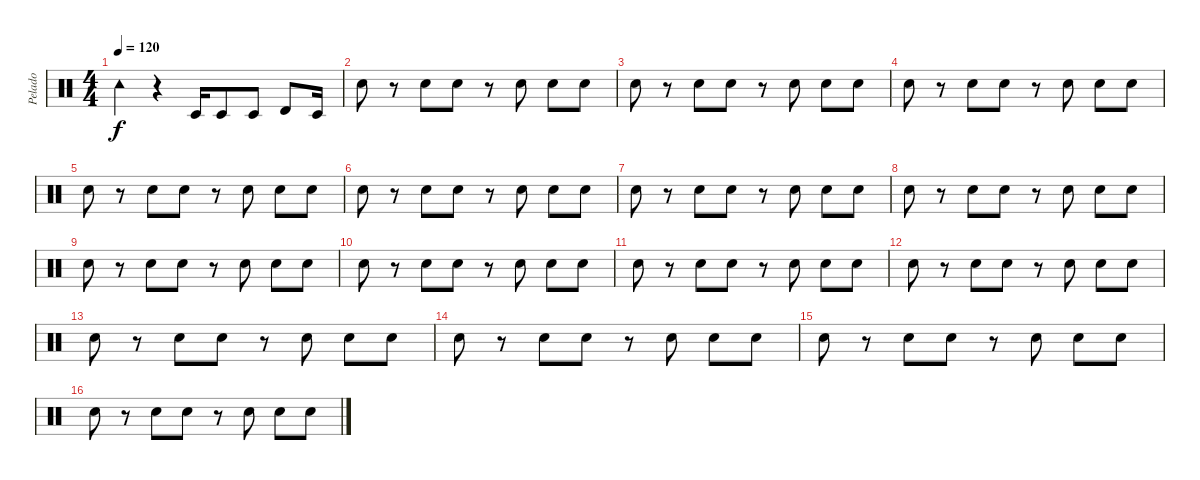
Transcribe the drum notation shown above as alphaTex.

\track ("Pelado" "Pelado") {instrument percussion}
\staff {score}
\articulation defaults
\ts (4 4)
\tempo 120
\clef neutral
\ks c "Tambourine (hit)".4{dy f}
r.4 "Timbale low (hit)".16 "Timbale low (hit)".8 "Timbale low (hit)".8 "Timbale high (hit)".8 "Timbale low (hit)".16 |
"Snare (hit) 2".8 r.8 "Electric Snare (hit)".8 "Electric Snare (hit)".8 r.8 "Snare (hit) 2".8 "Electric Snare (hit)".8 "Electric Snare (hit)".8 |
"Snare (hit) 2".8 r.8 "Electric Snare (hit)".8 "Electric Snare (hit)".8 r.8 "Snare (hit) 2".8 "Electric Snare (hit)".8 "Electric Snare (hit)".8 |
"Snare (hit) 2".8 r.8 "Electric Snare (hit)".8 "Electric Snare (hit)".8 r.8 "Snare (hit) 2".8 "Electric Snare (hit)".8 "Electric Snare (hit)".8 |
"Snare (hit) 2".8 r.8 "Electric Snare (hit)".8 "Electric Snare (hit)".8 r.8 "Snare (hit) 2".8 "Electric Snare (hit)".8 "Electric Snare (hit)".8 |
"Snare (hit) 2".8 r.8 "Electric Snare (hit)".8 "Electric Snare (hit)".8 r.8 "Snare (hit) 2".8 "Electric Snare (hit)".8 "Electric Snare (hit)".8 |
"Snare (hit) 2".8 r.8 "Electric Snare (hit)".8 "Electric Snare (hit)".8 r.8 "Snare (hit) 2".8 "Electric Snare (hit)".8 "Electric Snare (hit)".8 |
"Snare (hit) 2".8 r.8 "Electric Snare (hit)".8 "Electric Snare (hit)".8 r.8 "Snare (hit) 2".8 "Electric Snare (hit)".8 "Electric Snare (hit)".8 |
"Snare (hit) 2".8 r.8 "Electric Snare (hit)".8 "Electric Snare (hit)".8 r.8 "Snare (hit) 2".8 "Electric Snare (hit)".8 "Electric Snare (hit)".8 |
"Snare (hit) 2".8 r.8 "Electric Snare (hit)".8 "Electric Snare (hit)".8 r.8 "Snare (hit) 2".8 "Electric Snare (hit)".8 "Electric Snare (hit)".8 |
"Snare (hit) 2".8 r.8 "Electric Snare (hit)".8 "Electric Snare (hit)".8 r.8 "Snare (hit) 2".8 "Electric Snare (hit)".8 "Electric Snare (hit)".8 |
"Snare (hit) 2".8 r.8 "Electric Snare (hit)".8 "Electric Snare (hit)".8 r.8 "Snare (hit) 2".8 "Electric Snare (hit)".8 "Electric Snare (hit)".8 |
"Snare (hit) 2".8 r.8 "Electric Snare (hit)".8 "Electric Snare (hit)".8 r.8 "Snare (hit) 2".8 "Electric Snare (hit)".8 "Electric Snare (hit)".8 |
"Snare (hit) 2".8 r.8 "Electric Snare (hit)".8 "Electric Snare (hit)".8 r.8 "Snare (hit) 2".8 "Electric Snare (hit)".8 "Electric Snare (hit)".8 |
"Snare (hit) 2".8 r.8 "Electric Snare (hit)".8 "Electric Snare (hit)".8 r.8 "Snare (hit) 2".8 "Electric Snare (hit)".8 "Electric Snare (hit)".8 |
"Snare (hit) 2".8 r.8 "Electric Snare (hit)".8 "Electric Snare (hit)".8 r.8 "Snare (hit) 2".8 "Electric Snare (hit)".8 "Electric Snare (hit)".8
